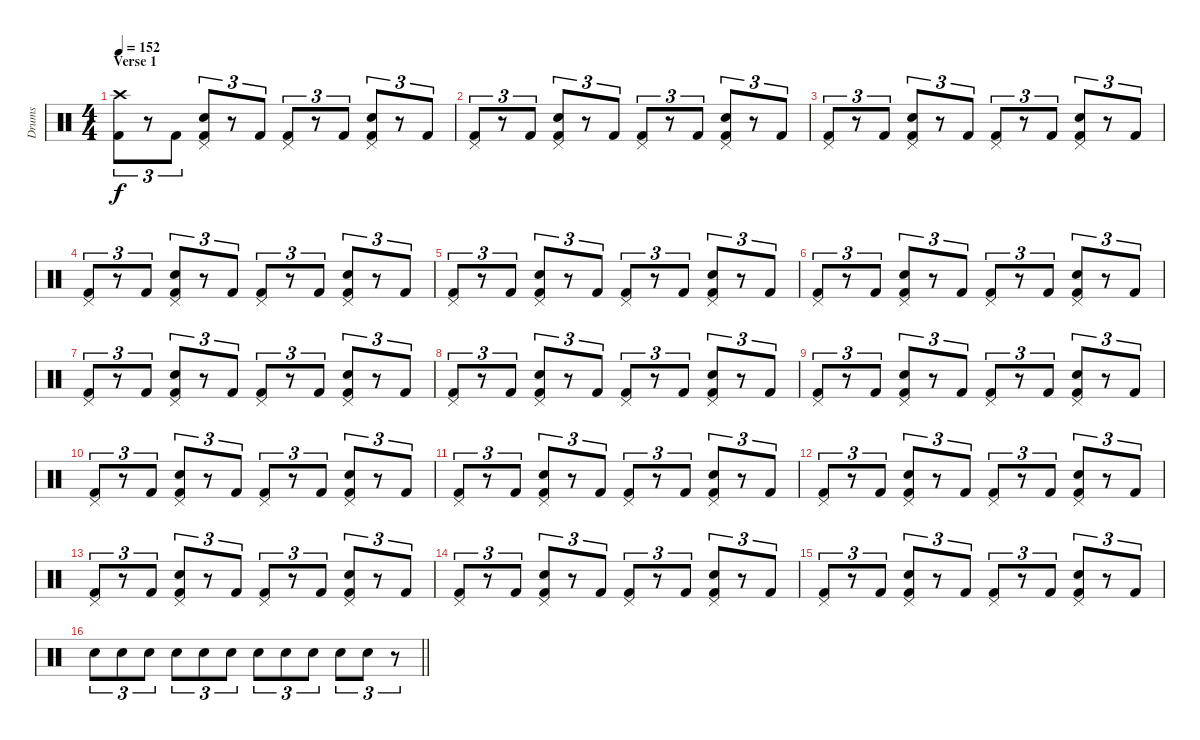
\track ("Drums" "Drums") {instrument percussion}
\staff {score}
\articulation defaults
\ts (4 4)
\section ("" "Verse 1")
\tempo 152
\clef neutral
\ks c
("Crash high (hit)" "Kick (hit) 2").8{tu (3 2) dy f} r.8{tu (3 2)} "Kick (hit) 2".8{tu (3 2)} ("Pedal Hi-Hat (hit)" "Snare (hit) 2" "Kick (hit) 2").8{tu (3 2)} r.8{tu (3 2)} "Kick (hit) 2".8{tu (3 2)} ("Pedal Hi-Hat (hit)" "Kick (hit) 2").8{tu (3 2)} r.8{tu (3 2)} "Kick (hit) 2".8{tu (3 2)} ("Pedal Hi-Hat (hit)" "Snare (hit) 2" "Kick (hit) 2").8{tu (3 2)} r.8{tu (3 2)} "Kick (hit) 2".8{tu (3 2)} |
("Pedal Hi-Hat (hit)" "Kick (hit) 2").8{tu (3 2)} r.8{tu (3 2)} "Kick (hit) 2".8{tu (3 2)} ("Pedal Hi-Hat (hit)" "Snare (hit) 2" "Kick (hit) 2").8{tu (3 2)} r.8{tu (3 2)} "Kick (hit) 2".8{tu (3 2)} ("Pedal Hi-Hat (hit)" "Kick (hit) 2").8{tu (3 2)} r.8{tu (3 2)} "Kick (hit) 2".8{tu (3 2)} ("Pedal Hi-Hat (hit)" "Snare (hit) 2" "Kick (hit) 2").8{tu (3 2)} r.8{tu (3 2)} "Kick (hit) 2".8{tu (3 2)} |
("Pedal Hi-Hat (hit)" "Kick (hit) 2").8{tu (3 2)} r.8{tu (3 2)} "Kick (hit) 2".8{tu (3 2)} ("Pedal Hi-Hat (hit)" "Snare (hit) 2" "Kick (hit) 2").8{tu (3 2)} r.8{tu (3 2)} "Kick (hit) 2".8{tu (3 2)} ("Pedal Hi-Hat (hit)" "Kick (hit) 2").8{tu (3 2)} r.8{tu (3 2)} "Kick (hit) 2".8{tu (3 2)} ("Pedal Hi-Hat (hit)" "Snare (hit) 2" "Kick (hit) 2").8{tu (3 2)} r.8{tu (3 2)} "Kick (hit) 2".8{tu (3 2)} |
("Pedal Hi-Hat (hit)" "Kick (hit) 2").8{tu (3 2)} r.8{tu (3 2)} "Kick (hit) 2".8{tu (3 2)} ("Pedal Hi-Hat (hit)" "Snare (hit) 2" "Kick (hit) 2").8{tu (3 2)} r.8{tu (3 2)} "Kick (hit) 2".8{tu (3 2)} ("Pedal Hi-Hat (hit)" "Kick (hit) 2").8{tu (3 2)} r.8{tu (3 2)} "Kick (hit) 2".8{tu (3 2)} ("Pedal Hi-Hat (hit)" "Snare (hit) 2" "Kick (hit) 2").8{tu (3 2)} r.8{tu (3 2)} "Kick (hit) 2".8{tu (3 2)} |
("Pedal Hi-Hat (hit)" "Kick (hit) 2").8{tu (3 2)} r.8{tu (3 2)} "Kick (hit) 2".8{tu (3 2)} ("Pedal Hi-Hat (hit)" "Snare (hit) 2" "Kick (hit) 2").8{tu (3 2)} r.8{tu (3 2)} "Kick (hit) 2".8{tu (3 2)} ("Pedal Hi-Hat (hit)" "Kick (hit) 2").8{tu (3 2)} r.8{tu (3 2)} "Kick (hit) 2".8{tu (3 2)} ("Pedal Hi-Hat (hit)" "Snare (hit) 2" "Kick (hit) 2").8{tu (3 2)} r.8{tu (3 2)} "Kick (hit) 2".8{tu (3 2)} |
("Pedal Hi-Hat (hit)" "Kick (hit) 2").8{tu (3 2)} r.8{tu (3 2)} "Kick (hit) 2".8{tu (3 2)} ("Pedal Hi-Hat (hit)" "Snare (hit) 2" "Kick (hit) 2").8{tu (3 2)} r.8{tu (3 2)} "Kick (hit) 2".8{tu (3 2)} ("Pedal Hi-Hat (hit)" "Kick (hit) 2").8{tu (3 2)} r.8{tu (3 2)} "Kick (hit) 2".8{tu (3 2)} ("Pedal Hi-Hat (hit)" "Snare (hit) 2" "Kick (hit) 2").8{tu (3 2)} r.8{tu (3 2)} "Kick (hit) 2".8{tu (3 2)} |
("Pedal Hi-Hat (hit)" "Kick (hit) 2").8{tu (3 2)} r.8{tu (3 2)} "Kick (hit) 2".8{tu (3 2)} ("Pedal Hi-Hat (hit)" "Snare (hit) 2" "Kick (hit) 2").8{tu (3 2)} r.8{tu (3 2)} "Kick (hit) 2".8{tu (3 2)} ("Pedal Hi-Hat (hit)" "Kick (hit) 2").8{tu (3 2)} r.8{tu (3 2)} "Kick (hit) 2".8{tu (3 2)} ("Pedal Hi-Hat (hit)" "Snare (hit) 2" "Kick (hit) 2").8{tu (3 2)} r.8{tu (3 2)} "Kick (hit) 2".8{tu (3 2)} |
("Pedal Hi-Hat (hit)" "Kick (hit) 2").8{tu (3 2)} r.8{tu (3 2)} "Kick (hit) 2".8{tu (3 2)} ("Pedal Hi-Hat (hit)" "Snare (hit) 2" "Kick (hit) 2").8{tu (3 2)} r.8{tu (3 2)} "Kick (hit) 2".8{tu (3 2)} ("Pedal Hi-Hat (hit)" "Kick (hit) 2").8{tu (3 2)} r.8{tu (3 2)} "Kick (hit) 2".8{tu (3 2)} ("Pedal Hi-Hat (hit)" "Snare (hit) 2" "Kick (hit) 2").8{tu (3 2)} r.8{tu (3 2)} "Kick (hit) 2".8{tu (3 2)} |
("Pedal Hi-Hat (hit)" "Kick (hit) 2").8{tu (3 2)} r.8{tu (3 2)} "Kick (hit) 2".8{tu (3 2)} ("Pedal Hi-Hat (hit)" "Snare (hit) 2" "Kick (hit) 2").8{tu (3 2)} r.8{tu (3 2)} "Kick (hit) 2".8{tu (3 2)} ("Pedal Hi-Hat (hit)" "Kick (hit) 2").8{tu (3 2)} r.8{tu (3 2)} "Kick (hit) 2".8{tu (3 2)} ("Pedal Hi-Hat (hit)" "Snare (hit) 2" "Kick (hit) 2").8{tu (3 2)} r.8{tu (3 2)} "Kick (hit) 2".8{tu (3 2)} |
("Pedal Hi-Hat (hit)" "Kick (hit) 2").8{tu (3 2)} r.8{tu (3 2)} "Kick (hit) 2".8{tu (3 2)} ("Pedal Hi-Hat (hit)" "Snare (hit) 2" "Kick (hit) 2").8{tu (3 2)} r.8{tu (3 2)} "Kick (hit) 2".8{tu (3 2)} ("Pedal Hi-Hat (hit)" "Kick (hit) 2").8{tu (3 2)} r.8{tu (3 2)} "Kick (hit) 2".8{tu (3 2)} ("Pedal Hi-Hat (hit)" "Snare (hit) 2" "Kick (hit) 2").8{tu (3 2)} r.8{tu (3 2)} "Kick (hit) 2".8{tu (3 2)} |
("Pedal Hi-Hat (hit)" "Kick (hit) 2").8{tu (3 2)} r.8{tu (3 2)} "Kick (hit) 2".8{tu (3 2)} ("Pedal Hi-Hat (hit)" "Snare (hit) 2" "Kick (hit) 2").8{tu (3 2)} r.8{tu (3 2)} "Kick (hit) 2".8{tu (3 2)} ("Pedal Hi-Hat (hit)" "Kick (hit) 2").8{tu (3 2)} r.8{tu (3 2)} "Kick (hit) 2".8{tu (3 2)} ("Pedal Hi-Hat (hit)" "Snare (hit) 2" "Kick (hit) 2").8{tu (3 2)} r.8{tu (3 2)} "Kick (hit) 2".8{tu (3 2)} |
("Pedal Hi-Hat (hit)" "Kick (hit) 2").8{tu (3 2)} r.8{tu (3 2)} "Kick (hit) 2".8{tu (3 2)} ("Pedal Hi-Hat (hit)" "Snare (hit) 2" "Kick (hit) 2").8{tu (3 2)} r.8{tu (3 2)} "Kick (hit) 2".8{tu (3 2)} ("Pedal Hi-Hat (hit)" "Kick (hit) 2").8{tu (3 2)} r.8{tu (3 2)} "Kick (hit) 2".8{tu (3 2)} ("Pedal Hi-Hat (hit)" "Snare (hit) 2" "Kick (hit) 2").8{tu (3 2)} r.8{tu (3 2)} "Kick (hit) 2".8{tu (3 2)} |
("Pedal Hi-Hat (hit)" "Kick (hit) 2").8{tu (3 2)} r.8{tu (3 2)} "Kick (hit) 2".8{tu (3 2)} ("Pedal Hi-Hat (hit)" "Snare (hit) 2" "Kick (hit) 2").8{tu (3 2)} r.8{tu (3 2)} "Kick (hit) 2".8{tu (3 2)} ("Pedal Hi-Hat (hit)" "Kick (hit) 2").8{tu (3 2)} r.8{tu (3 2)} "Kick (hit) 2".8{tu (3 2)} ("Pedal Hi-Hat (hit)" "Snare (hit) 2" "Kick (hit) 2").8{tu (3 2)} r.8{tu (3 2)} "Kick (hit) 2".8{tu (3 2)} |
("Pedal Hi-Hat (hit)" "Kick (hit) 2").8{tu (3 2)} r.8{tu (3 2)} "Kick (hit) 2".8{tu (3 2)} ("Pedal Hi-Hat (hit)" "Snare (hit) 2" "Kick (hit) 2").8{tu (3 2)} r.8{tu (3 2)} "Kick (hit) 2".8{tu (3 2)} ("Pedal Hi-Hat (hit)" "Kick (hit) 2").8{tu (3 2)} r.8{tu (3 2)} "Kick (hit) 2".8{tu (3 2)} ("Pedal Hi-Hat (hit)" "Snare (hit) 2" "Kick (hit) 2").8{tu (3 2)} r.8{tu (3 2)} "Kick (hit) 2".8{tu (3 2)} |
("Pedal Hi-Hat (hit)" "Kick (hit) 2").8{tu (3 2)} r.8{tu (3 2)} "Kick (hit) 2".8{tu (3 2)} ("Pedal Hi-Hat (hit)" "Snare (hit) 2" "Kick (hit) 2").8{tu (3 2)} r.8{tu (3 2)} "Kick (hit) 2".8{tu (3 2)} ("Pedal Hi-Hat (hit)" "Kick (hit) 2").8{tu (3 2)} r.8{tu (3 2)} "Kick (hit) 2".8{tu (3 2)} ("Pedal Hi-Hat (hit)" "Snare (hit) 2" "Kick (hit) 2").8{tu (3 2)} r.8{tu (3 2)} "Kick (hit) 2".8{tu (3 2)} |
\barLineRight lightlight "Snare (hit) 2".8{tu (3 2)} "Snare (hit) 2".8{tu (3 2)} "Snare (hit) 2".8{tu (3 2)} "Snare (hit) 2".8{tu (3 2)} "Snare (hit) 2".8{tu (3 2)} "Snare (hit) 2".8{tu (3 2)} "Snare (hit) 2".8{tu (3 2)} "Snare (hit) 2".8{tu (3 2)} "Snare (hit) 2".8{tu (3 2)} "Snare (hit) 2".8{tu (3 2)} "Snare (hit) 2".8{tu (3 2)}
r.8{tu (3 2)}
